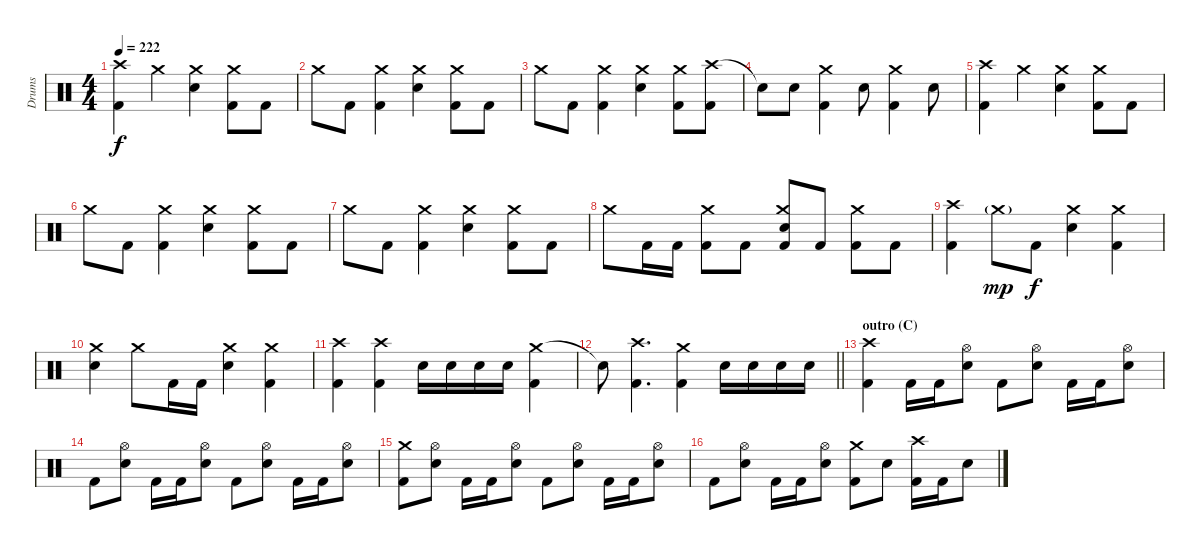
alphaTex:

\track ("Drums" "Drums") {instrument percussion}
\staff {score}
\articulation defaults
\ts (4 4)
\tempo 222
\clef neutral
\ks c
("Crash high (hit)" "Kick (hit) 2").4{dy f} "Crash medium (hit)".4 ("Crash medium (hit)" "Electric Snare (hit)").4 ("Crash medium (hit)" "Kick (hit) 2").8 "Kick (hit) 2".8 |
"Crash medium (hit)".8 "Kick (hit) 2".8 ("Crash medium (hit)" "Kick (hit) 2").4 ("Crash medium (hit)" "Electric Snare (hit)").4 ("Crash medium (hit)" "Kick (hit) 2").8 "Kick (hit) 2".8 |
"Crash medium (hit)".8 "Kick (hit) 2".8 ("Crash medium (hit)" "Kick (hit) 2").4 ("Crash medium (hit)" "Electric Snare (hit)").4 ("Crash medium (hit)" "Kick (hit) 2").8 ("Crash high (hit)" "Kick (hit) 2").8 |
"Snare (hit)"{t}.8 "Electric Snare (hit)".8 ("Crash medium (hit)" "Kick (hit) 2").4 "Electric Snare (hit)".8 ("Crash medium (hit)" "Kick (hit) 2").4 "Electric Snare (hit)".8 |
("Crash high (hit)" "Kick (hit) 2").4 "Crash medium (hit)".4 ("Crash medium (hit)" "Electric Snare (hit)").4 ("Crash medium (hit)" "Kick (hit) 2").8 "Kick (hit) 2".8 |
"Crash medium (hit)".8 "Kick (hit) 2".8 ("Crash medium (hit)" "Kick (hit) 2").4 ("Crash medium (hit)" "Electric Snare (hit)").4 ("Crash medium (hit)" "Kick (hit) 2").8 "Kick (hit) 2".8 |
"Crash medium (hit)".8 "Kick (hit) 2".8 ("Crash medium (hit)" "Kick (hit) 2").4 ("Crash medium (hit)" "Electric Snare (hit)").4 ("Crash medium (hit)" "Kick (hit) 2").8 "Kick (hit) 2".8 |
"Crash medium (hit)".8 "Kick (hit) 2".16 "Kick (hit) 2".16 ("Crash medium (hit)" "Kick (hit) 2").8 "Kick (hit) 2".8 ("Crash medium (hit)" "Electric Snare (hit)" "Kick (hit) 2").8 "Kick (hit) 2".8 ("Crash medium (hit)" "Kick (hit) 2").8 "Kick (hit) 2".8 |
("Crash high (hit)" "Kick (hit) 2").4 "Crash medium (hit)"{g}.8{dy mp} "Kick (hit) 2".8{dy f} ("Crash medium (hit)" "Electric Snare (hit)").4 ("Crash medium (hit)" "Kick (hit) 2").4 |
("Crash medium (hit)" "Electric Snare (hit)").4 "Crash medium (hit)".8 "Kick (hit) 2".16 "Kick (hit) 2".16 ("Crash medium (hit)" "Electric Snare (hit)").4 ("Crash medium (hit)" "Kick (hit) 2").4 |
("Crash high (hit)" "Kick (hit) 2").4 ("Crash high (hit)" "Kick (hit) 2").4 "Electric Snare (hit)".16 "Electric Snare (hit)".16 "Electric Snare (hit)".16 "Electric Snare (hit)".16 ("Crash medium (hit)" "Kick (hit) 2").4 |
\barLineRight lightlight "Snare (hit)"{t}.8
("Crash high (hit)" "Kick (hit) 2").4{d} ("Crash medium (hit)" "Kick (hit) 2").4 "Electric Snare (hit)".16 "Electric Snare (hit)".16 "Electric Snare (hit)".16 "Electric Snare (hit)".16 |
\section ("" "outro (C)")
("Crash high (hit)" "Kick (hit) 2").4 "Kick (hit) 2".16 "Kick (hit) 2".16 ("Hi-Hat (open)" "Electric Snare (hit)").8 "Kick (hit) 2".8 ("Hi-Hat (open)" "Electric Snare (hit)").8 "Kick (hit) 2".16 "Kick (hit) 2".16 ("Hi-Hat (open)" "Electric Snare (hit)").8 |
"Kick (hit) 2".8 ("Hi-Hat (open)" "Electric Snare (hit)").8 "Kick (hit) 2".16 "Kick (hit) 2".16 ("Hi-Hat (open)" "Electric Snare (hit)").8 "Kick (hit) 2".8 ("Hi-Hat (open)" "Electric Snare (hit)").8 "Kick (hit) 2".16 "Kick (hit) 2".16 ("Hi-Hat (open)" "Electric Snare (hit)").8 |
("Crash medium (hit)" "Kick (hit) 2").8 ("Hi-Hat (open)" "Electric Snare (hit)").8 "Kick (hit) 2".16 "Kick (hit) 2".16 ("Hi-Hat (open)" "Electric Snare (hit)").8 "Kick (hit) 2".8 ("Hi-Hat (open)" "Electric Snare (hit)").8 "Kick (hit) 2".16 "Kick (hit) 2".16 ("Hi-Hat (open)" "Electric Snare (hit)").8 |
"Kick (hit) 2".8 ("Hi-Hat (open)" "Electric Snare (hit)").8 "Kick (hit) 2".16 "Kick (hit) 2".16 ("Hi-Hat (open)" "Electric Snare (hit)").8 ("Crash medium (hit)" "Kick (hit) 2").8 "Electric Snare (hit)".8 ("Crash high (hit)" "Kick (hit) 2").16 "Kick (hit) 2".16 "Electric Snare (hit)".8
